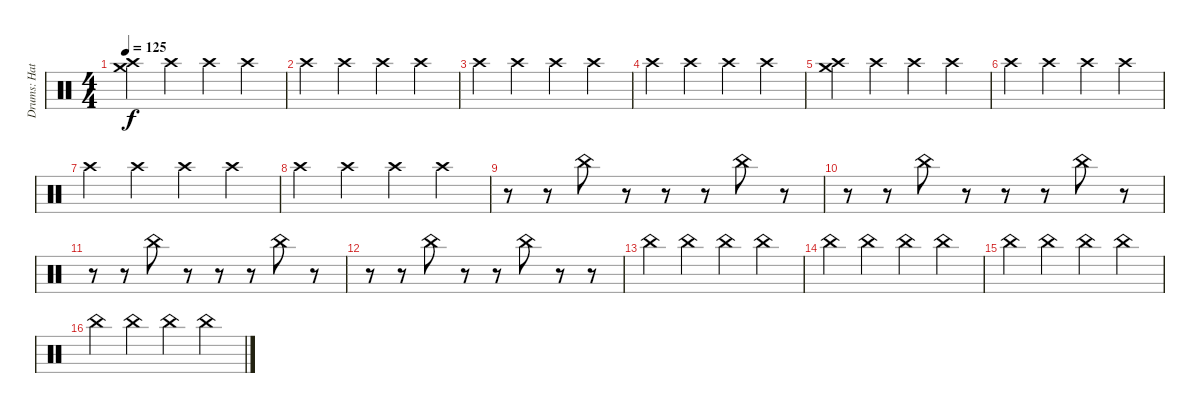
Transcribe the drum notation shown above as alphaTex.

\track ("Drums: Hats, Etc" "Drums: Hat") {instrument percussion}
\staff {score}
\articulation defaults
\ts (4 4)
\tempo 125
\clef neutral
\ks c
("Crash medium (hit)" "Crash high (hit)").4{dy f} "Crash high (hit)".4 "Crash high (hit)".4 "Crash high (hit)".4 |
"Crash high (hit)".4 "Crash high (hit)".4 "Crash high (hit)".4 "Crash high (hit)".4 |
"Crash high (hit)".4 "Crash high (hit)".4 "Crash high (hit)".4 "Crash high (hit)".4 |
"Crash high (hit)".4 "Crash high (hit)".4 "Crash high (hit)".4 "Crash high (hit)".4 |
("Crash medium (hit)" "Crash high (hit)").4 "Crash high (hit)".4 "Crash high (hit)".4 "Crash high (hit)".4 |
"Crash high (hit)".4 "Crash high (hit)".4 "Crash high (hit)".4 "Crash high (hit)".4 |
"Crash high (hit)".4 "Crash high (hit)".4 "Crash high (hit)".4 "Crash high (hit)".4 |
"Crash high (hit)".4 "Crash high (hit)".4 "Crash high (hit)".4 "Crash high (hit)".4 |
r.8 r.8 "China (hit)".8 r.8 r.8 r.8 "China (hit)".8 r.8 |
r.8 r.8 "China (hit)".8 r.8 r.8 r.8 "China (hit)".8 r.8 |
r.8 r.8 "China (hit)".8 r.8 r.8 r.8 "China (hit)".8 r.8 |
r.8 r.8 "China (hit)".8 r.8 r.8 "China (hit)".8 r.8 r.8 |
"China (hit)".4 "China (hit)".4 "China (hit)".4 "China (hit)".4 |
"China (hit)".4 "China (hit)".4 "China (hit)".4 "China (hit)".4 |
"China (hit)".4 "China (hit)".4 "China (hit)".4 "China (hit)".4 |
"China (hit)".4 "China (hit)".4 "China (hit)".4 "China (hit)".4
